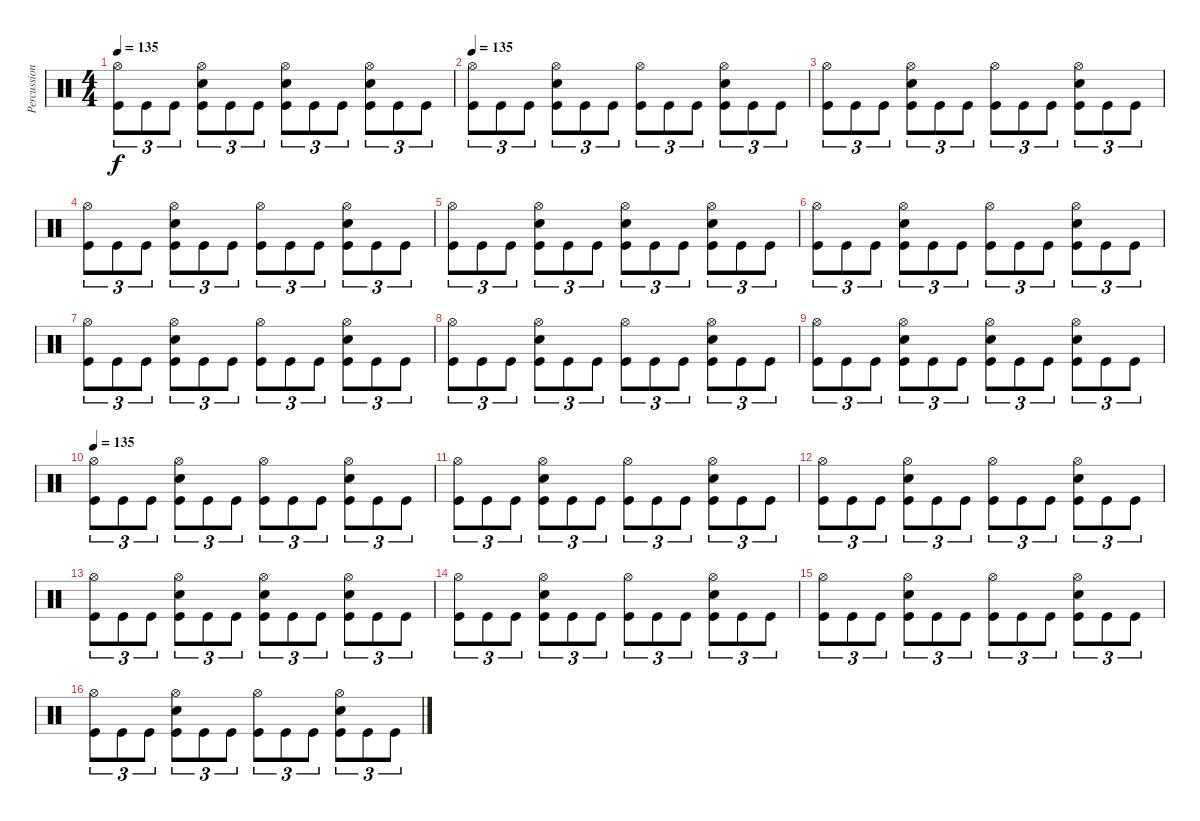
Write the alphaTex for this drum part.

\track ("Percussions" "Percussion") {instrument percussion}
\staff {score}
\articulation defaults
\ts (4 4)
\tempo 135
\clef neutral
\ks c
("Hi-Hat (open)" "Kick (hit)").8{tu (3 2) dy f} "Kick (hit)".8{tu (3 2)} "Kick (hit)".8{tu (3 2)} ("Hi-Hat (open)" "Electric Snare (hit)" "Kick (hit)").8{tu (3 2)} "Kick (hit)".8{tu (3 2)} "Kick (hit)".8{tu (3 2)} ("Hi-Hat (open)" "Electric Snare (hit)" "Kick (hit)").8{tu (3 2)} "Kick (hit)".8{tu (3 2)} "Kick (hit)".8{tu (3 2)} ("Hi-Hat (open)" "Electric Snare (hit)" "Kick (hit)").8{tu (3 2)} "Kick (hit)".8{tu (3 2)} "Kick (hit)".8{tu (3 2)} |
\tempo 135
("Hi-Hat (open)" "Kick (hit)").8{tu (3 2)} "Kick (hit)".8{tu (3 2)} "Kick (hit)".8{tu (3 2)} ("Hi-Hat (open)" "Electric Snare (hit)" "Kick (hit)").8{tu (3 2)} "Kick (hit)".8{tu (3 2)} "Kick (hit)".8{tu (3 2)} ("Hi-Hat (open)" "Kick (hit)").8{tu (3 2)} "Kick (hit)".8{tu (3 2)} "Kick (hit)".8{tu (3 2)} ("Hi-Hat (open)" "Electric Snare (hit)" "Kick (hit)").8{tu (3 2)} "Kick (hit)".8{tu (3 2)} "Kick (hit)".8{tu (3 2)} |
("Hi-Hat (open)" "Kick (hit)").8{tu (3 2)} "Kick (hit)".8{tu (3 2)} "Kick (hit)".8{tu (3 2)} ("Hi-Hat (open)" "Electric Snare (hit)" "Kick (hit)").8{tu (3 2)} "Kick (hit)".8{tu (3 2)} "Kick (hit)".8{tu (3 2)} ("Hi-Hat (open)" "Kick (hit)").8{tu (3 2)} "Kick (hit)".8{tu (3 2)} "Kick (hit)".8{tu (3 2)} ("Hi-Hat (open)" "Electric Snare (hit)" "Kick (hit)").8{tu (3 2)} "Kick (hit)".8{tu (3 2)} "Kick (hit)".8{tu (3 2)} |
("Hi-Hat (open)" "Kick (hit)").8{tu (3 2)} "Kick (hit)".8{tu (3 2)} "Kick (hit)".8{tu (3 2)} ("Hi-Hat (open)" "Electric Snare (hit)" "Kick (hit)").8{tu (3 2)} "Kick (hit)".8{tu (3 2)} "Kick (hit)".8{tu (3 2)} ("Hi-Hat (open)" "Kick (hit)").8{tu (3 2)} "Kick (hit)".8{tu (3 2)} "Kick (hit)".8{tu (3 2)} ("Hi-Hat (open)" "Electric Snare (hit)" "Kick (hit)").8{tu (3 2)} "Kick (hit)".8{tu (3 2)} "Kick (hit)".8{tu (3 2)} |
("Hi-Hat (open)" "Kick (hit)").8{tu (3 2)} "Kick (hit)".8{tu (3 2)} "Kick (hit)".8{tu (3 2)} ("Hi-Hat (open)" "Electric Snare (hit)" "Kick (hit)").8{tu (3 2)} "Kick (hit)".8{tu (3 2)} "Kick (hit)".8{tu (3 2)} ("Hi-Hat (open)" "Electric Snare (hit)" "Kick (hit)").8{tu (3 2)} "Kick (hit)".8{tu (3 2)} "Kick (hit)".8{tu (3 2)} ("Hi-Hat (open)" "Electric Snare (hit)" "Kick (hit)").8{tu (3 2)} "Kick (hit)".8{tu (3 2)} "Kick (hit)".8{tu (3 2)} |
("Hi-Hat (open)" "Kick (hit)").8{tu (3 2)} "Kick (hit)".8{tu (3 2)} "Kick (hit)".8{tu (3 2)} ("Hi-Hat (open)" "Electric Snare (hit)" "Kick (hit)").8{tu (3 2)} "Kick (hit)".8{tu (3 2)} "Kick (hit)".8{tu (3 2)} ("Hi-Hat (open)" "Kick (hit)").8{tu (3 2)} "Kick (hit)".8{tu (3 2)} "Kick (hit)".8{tu (3 2)} ("Hi-Hat (open)" "Electric Snare (hit)" "Kick (hit)").8{tu (3 2)} "Kick (hit)".8{tu (3 2)} "Kick (hit)".8{tu (3 2)} |
("Hi-Hat (open)" "Kick (hit)").8{tu (3 2)} "Kick (hit)".8{tu (3 2)} "Kick (hit)".8{tu (3 2)} ("Hi-Hat (open)" "Electric Snare (hit)" "Kick (hit)").8{tu (3 2)} "Kick (hit)".8{tu (3 2)} "Kick (hit)".8{tu (3 2)} ("Hi-Hat (open)" "Kick (hit)").8{tu (3 2)} "Kick (hit)".8{tu (3 2)} "Kick (hit)".8{tu (3 2)} ("Hi-Hat (open)" "Electric Snare (hit)" "Kick (hit)").8{tu (3 2)} "Kick (hit)".8{tu (3 2)} "Kick (hit)".8{tu (3 2)} |
("Hi-Hat (open)" "Kick (hit)").8{tu (3 2)} "Kick (hit)".8{tu (3 2)} "Kick (hit)".8{tu (3 2)} ("Hi-Hat (open)" "Electric Snare (hit)" "Kick (hit)").8{tu (3 2)} "Kick (hit)".8{tu (3 2)} "Kick (hit)".8{tu (3 2)} ("Hi-Hat (open)" "Kick (hit)").8{tu (3 2)} "Kick (hit)".8{tu (3 2)} "Kick (hit)".8{tu (3 2)} ("Hi-Hat (open)" "Electric Snare (hit)" "Kick (hit)").8{tu (3 2)} "Kick (hit)".8{tu (3 2)} "Kick (hit)".8{tu (3 2)} |
("Hi-Hat (open)" "Kick (hit)").8{tu (3 2)} "Kick (hit)".8{tu (3 2)} "Kick (hit)".8{tu (3 2)} ("Hi-Hat (open)" "Electric Snare (hit)" "Kick (hit)").8{tu (3 2)} "Kick (hit)".8{tu (3 2)} "Kick (hit)".8{tu (3 2)} ("Hi-Hat (open)" "Electric Snare (hit)" "Kick (hit)").8{tu (3 2)} "Kick (hit)".8{tu (3 2)} "Kick (hit)".8{tu (3 2)} ("Hi-Hat (open)" "Electric Snare (hit)" "Kick (hit)").8{tu (3 2)} "Kick (hit)".8{tu (3 2)} "Kick (hit)".8{tu (3 2)} |
\tempo 135
("Hi-Hat (open)" "Kick (hit)").8{tu (3 2)} "Kick (hit)".8{tu (3 2)} "Kick (hit)".8{tu (3 2)} ("Hi-Hat (open)" "Electric Snare (hit)" "Kick (hit)").8{tu (3 2)} "Kick (hit)".8{tu (3 2)} "Kick (hit)".8{tu (3 2)} ("Hi-Hat (open)" "Kick (hit)").8{tu (3 2)} "Kick (hit)".8{tu (3 2)} "Kick (hit)".8{tu (3 2)} ("Hi-Hat (open)" "Electric Snare (hit)" "Kick (hit)").8{tu (3 2)} "Kick (hit)".8{tu (3 2)} "Kick (hit)".8{tu (3 2)} |
("Hi-Hat (open)" "Kick (hit)").8{tu (3 2)} "Kick (hit)".8{tu (3 2)} "Kick (hit)".8{tu (3 2)} ("Hi-Hat (open)" "Electric Snare (hit)" "Kick (hit)").8{tu (3 2)} "Kick (hit)".8{tu (3 2)} "Kick (hit)".8{tu (3 2)} ("Hi-Hat (open)" "Kick (hit)").8{tu (3 2)} "Kick (hit)".8{tu (3 2)} "Kick (hit)".8{tu (3 2)} ("Hi-Hat (open)" "Electric Snare (hit)" "Kick (hit)").8{tu (3 2)} "Kick (hit)".8{tu (3 2)} "Kick (hit)".8{tu (3 2)} |
("Hi-Hat (open)" "Kick (hit)").8{tu (3 2)} "Kick (hit)".8{tu (3 2)} "Kick (hit)".8{tu (3 2)} ("Hi-Hat (open)" "Electric Snare (hit)" "Kick (hit)").8{tu (3 2)} "Kick (hit)".8{tu (3 2)} "Kick (hit)".8{tu (3 2)} ("Hi-Hat (open)" "Kick (hit)").8{tu (3 2)} "Kick (hit)".8{tu (3 2)} "Kick (hit)".8{tu (3 2)} ("Hi-Hat (open)" "Electric Snare (hit)" "Kick (hit)").8{tu (3 2)} "Kick (hit)".8{tu (3 2)} "Kick (hit)".8{tu (3 2)} |
("Hi-Hat (open)" "Kick (hit)").8{tu (3 2)} "Kick (hit)".8{tu (3 2)} "Kick (hit)".8{tu (3 2)} ("Hi-Hat (open)" "Electric Snare (hit)" "Kick (hit)").8{tu (3 2)} "Kick (hit)".8{tu (3 2)} "Kick (hit)".8{tu (3 2)} ("Hi-Hat (open)" "Electric Snare (hit)" "Kick (hit)").8{tu (3 2)} "Kick (hit)".8{tu (3 2)} "Kick (hit)".8{tu (3 2)} ("Hi-Hat (open)" "Electric Snare (hit)" "Kick (hit)").8{tu (3 2)} "Kick (hit)".8{tu (3 2)} "Kick (hit)".8{tu (3 2)} |
("Hi-Hat (open)" "Kick (hit)").8{tu (3 2)} "Kick (hit)".8{tu (3 2)} "Kick (hit)".8{tu (3 2)} ("Hi-Hat (open)" "Electric Snare (hit)" "Kick (hit)").8{tu (3 2)} "Kick (hit)".8{tu (3 2)} "Kick (hit)".8{tu (3 2)} ("Hi-Hat (open)" "Kick (hit)").8{tu (3 2)} "Kick (hit)".8{tu (3 2)} "Kick (hit)".8{tu (3 2)} ("Hi-Hat (open)" "Electric Snare (hit)" "Kick (hit)").8{tu (3 2)} "Kick (hit)".8{tu (3 2)} "Kick (hit)".8{tu (3 2)} |
("Hi-Hat (open)" "Kick (hit)").8{tu (3 2)} "Kick (hit)".8{tu (3 2)} "Kick (hit)".8{tu (3 2)} ("Hi-Hat (open)" "Electric Snare (hit)" "Kick (hit)").8{tu (3 2)} "Kick (hit)".8{tu (3 2)} "Kick (hit)".8{tu (3 2)} ("Hi-Hat (open)" "Kick (hit)").8{tu (3 2)} "Kick (hit)".8{tu (3 2)} "Kick (hit)".8{tu (3 2)} ("Hi-Hat (open)" "Electric Snare (hit)" "Kick (hit)").8{tu (3 2)} "Kick (hit)".8{tu (3 2)} "Kick (hit)".8{tu (3 2)} |
("Hi-Hat (open)" "Kick (hit)").8{tu (3 2)} "Kick (hit)".8{tu (3 2)} "Kick (hit)".8{tu (3 2)} ("Hi-Hat (open)" "Electric Snare (hit)" "Kick (hit)").8{tu (3 2)} "Kick (hit)".8{tu (3 2)} "Kick (hit)".8{tu (3 2)} ("Hi-Hat (open)" "Kick (hit)").8{tu (3 2)} "Kick (hit)".8{tu (3 2)} "Kick (hit)".8{tu (3 2)} ("Hi-Hat (open)" "Electric Snare (hit)" "Kick (hit)").8{tu (3 2)} "Kick (hit)".8{tu (3 2)} "Kick (hit)".8{tu (3 2)}
